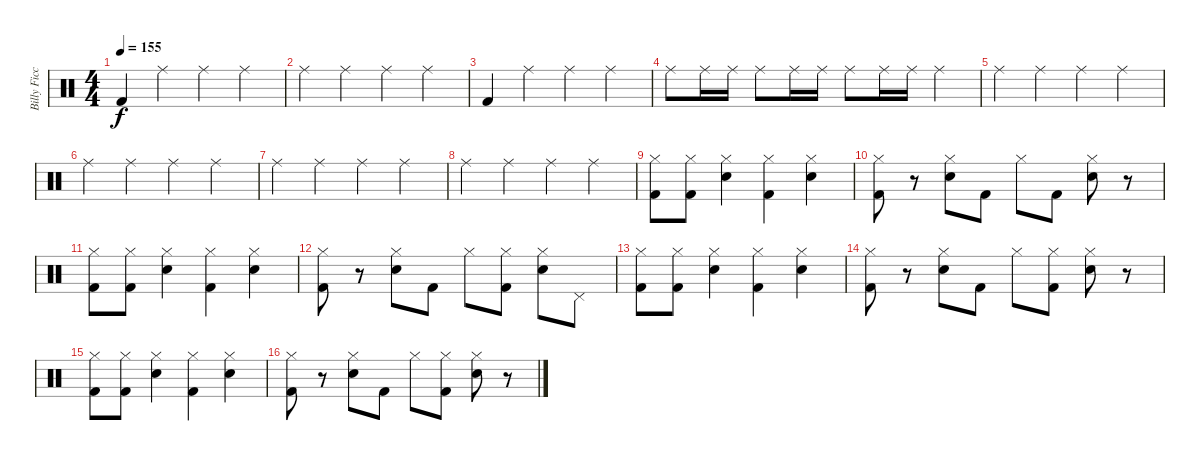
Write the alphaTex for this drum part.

\track ("Billy Ficca" "Billy Ficc") {instrument percussion}
\staff {score}
\articulation defaults
\ts (4 4)
\tempo 155
\clef neutral
\ks c "Kick (hit) 2".4{dy f} "Ride (middle)".4 "Ride (middle)".4 "Ride (middle)".4
|
"Ride (middle)".4 "Ride (middle)".4 "Ride (middle)".4 "Ride (middle)".4 |
"Kick (hit) 2".4 "Ride (middle)".4 "Ride (middle)".4 "Ride (middle)".4 |
"Ride (middle)".8 "Ride (middle)".16 "Ride (middle)".16 "Ride (middle)".8 "Ride (middle)".16 "Ride (middle)".16 "Ride (middle)".8 "Ride (middle)".16 "Ride (middle)".16 "Ride (middle)".4 |
"Ride (middle)".4 "Ride (middle)".4 "Ride (middle)".4 "Ride (middle)".4 |
"Ride (middle)".4 "Ride (middle)".4 "Ride (middle)".4 "Ride (middle)".4 |
"Ride (middle)".4 "Ride (middle)".4 "Ride (middle)".4 "Ride (middle)".4 |
"Ride (middle)".4 "Ride (middle)".4 "Ride (middle)".4 "Ride (middle)".4 |
("Hi-Hat (closed)" "Kick (hit) 2").8 ("Hi-Hat (closed)" "Kick (hit) 2").8 ("Hi-Hat (closed)" "Electric Snare (hit)").4 ("Hi-Hat (closed)" "Kick (hit) 2").4 ("Hi-Hat (closed)" "Electric Snare (hit)").4 |
("Hi-Hat (closed)" "Kick (hit) 2").8 r.8 ("Hi-Hat (closed)" "Electric Snare (hit)").8 "Kick (hit) 2".8 "Hi-Hat (closed)".8 "Kick (hit) 2".8 ("Hi-Hat (closed)" "Electric Snare (hit)").8 r.8 |
("Hi-Hat (closed)" "Kick (hit) 2").8 ("Hi-Hat (closed)" "Kick (hit) 2").8 ("Hi-Hat (closed)" "Electric Snare (hit)").4 ("Hi-Hat (closed)" "Kick (hit) 2").4 ("Hi-Hat (closed)" "Electric Snare (hit)").4 |
("Hi-Hat (closed)" "Kick (hit) 2").8 r.8 ("Hi-Hat (closed)" "Electric Snare (hit)").8 "Kick (hit) 2".8 "Hi-Hat (closed)".8 ("Hi-Hat (closed)" "Kick (hit) 2").8 ("Hi-Hat (closed)" "Electric Snare (hit)").8 "Pedal Hi-Hat (hit)".8 |
("Hi-Hat (closed)" "Kick (hit) 2").8 ("Hi-Hat (closed)" "Kick (hit) 2").8 ("Hi-Hat (closed)" "Electric Snare (hit)").4 ("Hi-Hat (closed)" "Kick (hit) 2").4 ("Hi-Hat (closed)" "Electric Snare (hit)").4 |
("Hi-Hat (closed)" "Kick (hit) 2").8 r.8 ("Hi-Hat (closed)" "Electric Snare (hit)").8 "Kick (hit) 2".8 "Hi-Hat (closed)".8 ("Hi-Hat (closed)" "Kick (hit) 2").8 ("Hi-Hat (closed)" "Electric Snare (hit)").8 r.8 |
("Hi-Hat (closed)" "Kick (hit) 2").8 ("Hi-Hat (closed)" "Kick (hit) 2").8 ("Hi-Hat (closed)" "Electric Snare (hit)").4 ("Hi-Hat (closed)" "Kick (hit) 2").4 ("Hi-Hat (closed)" "Electric Snare (hit)").4 |
("Hi-Hat (closed)" "Kick (hit) 2").8 r.8 ("Hi-Hat (closed)" "Electric Snare (hit)").8 "Kick (hit) 2".8 "Hi-Hat (closed)".8 ("Hi-Hat (closed)" "Kick (hit) 2").8 ("Hi-Hat (closed)" "Electric Snare (hit)").8 r.8
